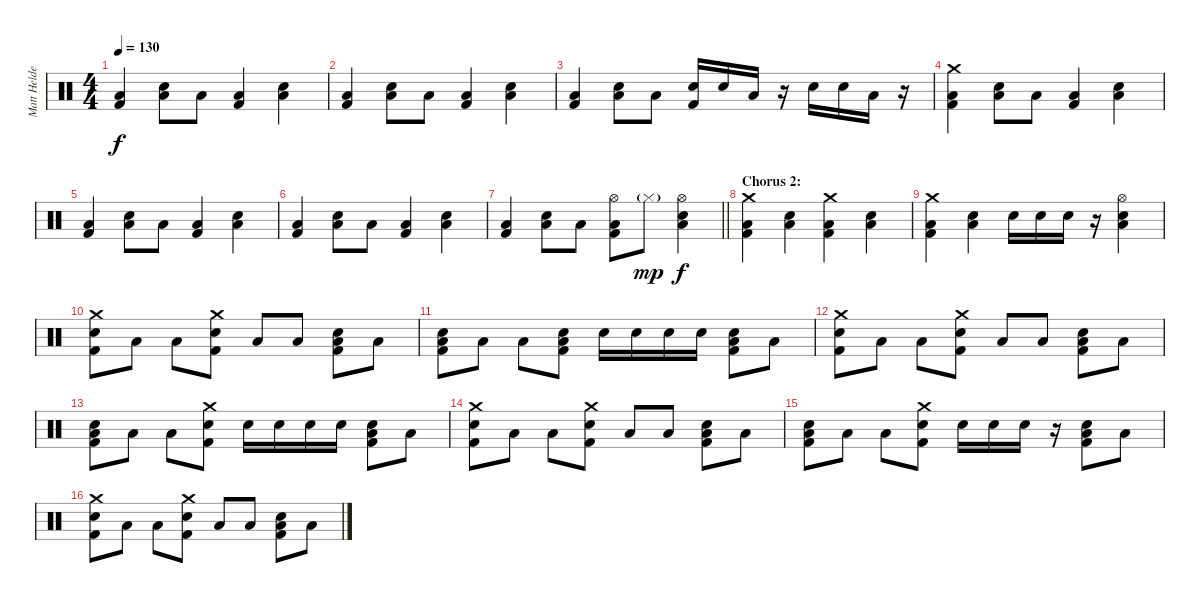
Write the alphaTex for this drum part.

\track ("Matt Helders (Percussion)" "Matt Helde") {instrument percussion}
\staff {score}
\articulation defaults
\ts (4 4)
\tempo 130
\clef neutral
\ks c
("Low Tom (hit)" "Kick (hit) 2").4{dy f} ("Snare (hit) 2" "Low Tom (hit)").8 "Low Tom (hit)".8 ("Low Tom (hit)" "Kick (hit) 2").4 ("Snare (hit) 2" "Low Tom (hit)").4 |
("Low Tom (hit)" "Kick (hit) 2").4 ("Snare (hit) 2" "Low Tom (hit)").8 "Low Tom (hit)".8 ("Low Tom (hit)" "Kick (hit) 2").4 ("Snare (hit) 2" "Low Tom (hit)").4 |
("Low Tom (hit)" "Kick (hit) 2").4 ("Snare (hit) 2" "Low Tom (hit)").8 "Low Tom (hit)".8 ("Snare (hit) 2" "Kick (hit) 2").16 "Snare (hit) 2".16 "Low Tom (hit)".16 r.16 "Snare (hit) 2".16 "Snare (hit) 2".16 "Low Tom (hit)".16 r.16 |
("Crash medium (hit)" "Low Tom (hit)" "Kick (hit) 2").4 ("Snare (hit) 2" "Low Tom (hit)").8 "Low Tom (hit)".8 ("Low Tom (hit)" "Kick (hit) 2").4 ("Snare (hit) 2" "Low Tom (hit)").4 |
("Low Tom (hit)" "Kick (hit) 2").4 ("Snare (hit) 2" "Low Tom (hit)").8 "Low Tom (hit)".8 ("Low Tom (hit)" "Kick (hit) 2").4 ("Snare (hit) 2" "Low Tom (hit)").4 |
("Low Tom (hit)" "Kick (hit) 2").4 ("Snare (hit) 2" "Low Tom (hit)").8 "Low Tom (hit)".8 ("Low Tom (hit)" "Kick (hit) 2").4 ("Snare (hit) 2" "Low Tom (hit)").4 |
\barLineRight lightlight
("Low Tom (hit)" "Kick (hit) 2").4 ("Snare (hit) 2" "Low Tom (hit)").8 "Low Tom (hit)".8 ("Hi-Hat (open)" "Low Tom (hit)" "Kick (hit) 2").8 "Hi-Hat (closed)"{g}.8{dy mp} ("Hi-Hat (open)" "Snare (hit) 2" "Low Tom (hit)").4{dy f} |
\section ("" "Chorus 2:")
("Crash medium (hit)" "Low Tom (hit)" "Kick (hit) 2").4 ("Snare (hit) 2" "Low Tom (hit)").4 ("Crash medium (hit)" "Low Tom (hit)" "Kick (hit) 2").4 ("Snare (hit) 2" "Low Tom (hit)").4 |
("Crash medium (hit)" "Low Tom (hit)" "Kick (hit) 2").4 ("Snare (hit) 2" "Low Tom (hit)").4 "Snare (hit) 2".16 "Snare (hit) 2".16 "Snare (hit) 2".16 r.16 ("Hi-Hat (open)" "Snare (hit) 2" "Low Tom (hit)").4 |
("Crash medium (hit)" "Snare (hit) 2" "Kick (hit) 2").8 "Low Tom (hit)".8 "Low Tom (hit)".8 ("Crash medium (hit)" "Snare (hit) 2" "Kick (hit) 2").8 "Low Tom (hit)".8 "Low Tom (hit)".8 ("Low Tom (hit)" "Snare (hit) 2" "Kick (hit) 2").8 "Low Tom (hit)".8 |
("Low Tom (hit)" "Snare (hit) 2" "Kick (hit) 2").8 "Low Tom (hit)".8 "Low Tom (hit)".8 ("Low Tom (hit)" "Snare (hit) 2" "Kick (hit) 2").8 "Snare (hit) 2".16 "Snare (hit) 2".16 "Snare (hit) 2".16 "Snare (hit) 2".16 ("Low Tom (hit)" "Snare (hit) 2" "Kick (hit) 2").8 "Low Tom (hit)".8 |
("Crash medium (hit)" "Snare (hit) 2" "Kick (hit) 2").8 "Low Tom (hit)".8 "Low Tom (hit)".8 ("Crash medium (hit)" "Snare (hit) 2" "Kick (hit) 2").8 "Low Tom (hit)".8 "Low Tom (hit)".8 ("Low Tom (hit)" "Snare (hit) 2" "Kick (hit) 2").8 "Low Tom (hit)".8 |
("Low Tom (hit)" "Snare (hit) 2" "Kick (hit) 2").8 "Low Tom (hit)".8 "Low Tom (hit)".8 ("Crash medium (hit)" "Snare (hit) 2" "Kick (hit) 2").8 "Snare (hit) 2".16 "Snare (hit) 2".16 "Snare (hit) 2".16 "Snare (hit) 2".16 ("Low Tom (hit)" "Snare (hit) 2" "Kick (hit) 2").8 "Low Tom (hit)".8 |
("Crash medium (hit)" "Snare (hit) 2" "Kick (hit) 2").8 "Low Tom (hit)".8 "Low Tom (hit)".8 ("Crash medium (hit)" "Snare (hit) 2" "Kick (hit) 2").8 "Low Tom (hit)".8 "Low Tom (hit)".8 ("Low Tom (hit)" "Snare (hit) 2" "Kick (hit) 2").8 "Low Tom (hit)".8 |
("Low Tom (hit)" "Snare (hit) 2" "Kick (hit) 2").8 "Low Tom (hit)".8 "Low Tom (hit)".8 ("Crash medium (hit)" "Snare (hit) 2" "Kick (hit) 2").8 "Snare (hit) 2".16 "Snare (hit) 2".16 "Snare (hit) 2".16 r.16 ("Low Tom (hit)" "Snare (hit) 2" "Kick (hit) 2").8 "Low Tom (hit)".8 |
("Crash medium (hit)" "Snare (hit) 2" "Kick (hit) 2").8 "Low Tom (hit)".8 "Low Tom (hit)".8 ("Crash medium (hit)" "Snare (hit) 2" "Kick (hit) 2").8 "Low Tom (hit)".8 "Low Tom (hit)".8 ("Low Tom (hit)" "Snare (hit) 2" "Kick (hit) 2").8 "Low Tom (hit)".8
